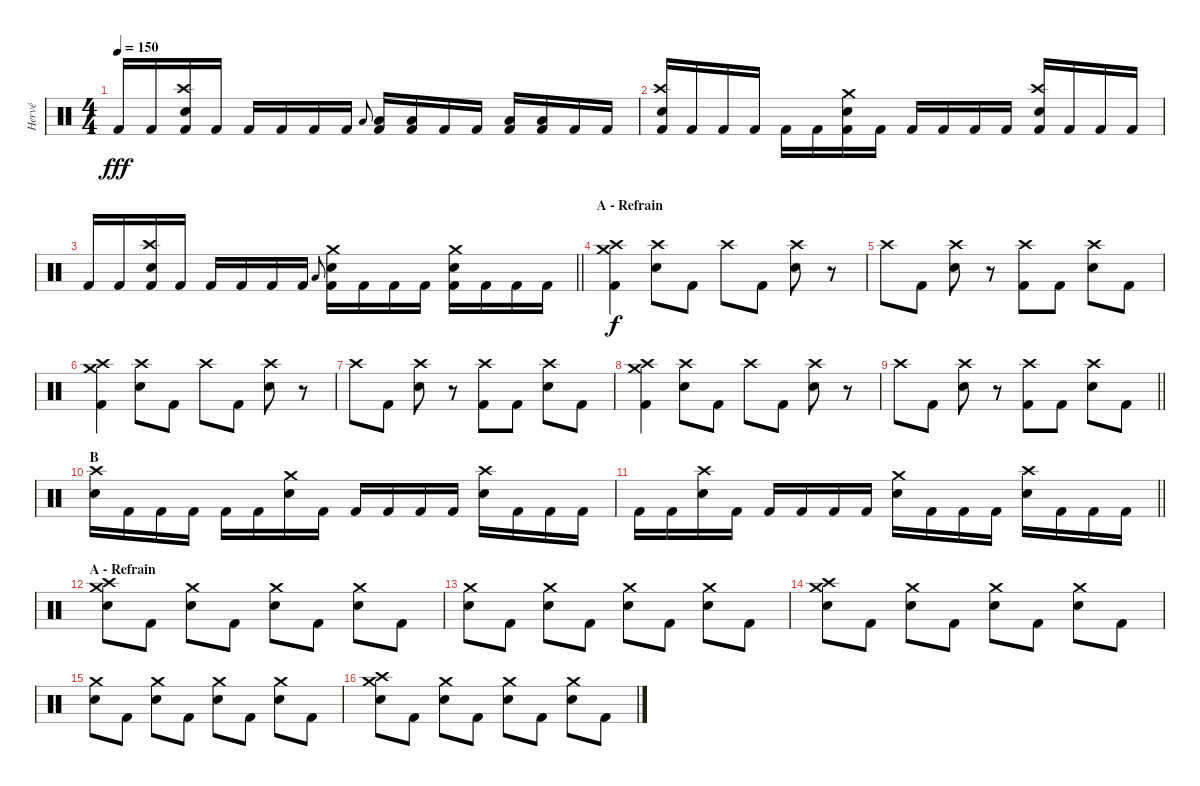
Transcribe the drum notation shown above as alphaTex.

\track ("Hervé" "Hervé") {instrument percussion}
\staff {score}
\articulation defaults
\ts (4 4)
\tempo 150
\clef neutral
\ks c "Kick (hit) 2".16{dy fff} "Kick (hit) 2".16
("Crash high (hit)" "Snare (hit) 2" "Kick (hit) 2").16 "Kick (hit) 2".16 "Kick (hit) 2".16 "Kick (hit) 2".16 "Kick (hit) 2".16 "Kick (hit) 2".16 "Low Tom (hit)".8{gr onbeat} ("Low Tom (hit)" "Kick (hit) 2").16 ("Low Tom (hit)" "Kick (hit) 2").16 "Kick (hit) 2".16 "Kick (hit) 2".16 ("Low Tom (hit)" "Kick (hit) 2").16 ("Low Tom (hit)" "Kick (hit) 2").16 "Kick (hit) 2".16 "Kick (hit) 2".16 |
("Crash high (hit)" "Snare (hit) 2" "Kick (hit) 2").16 "Kick (hit) 2".16 "Kick (hit) 2".16 "Kick (hit) 2".16 "Kick (hit) 2".16 "Kick (hit) 2".16 ("Crash medium (hit)" "Snare (hit) 2" "Kick (hit) 2").16 "Kick (hit) 2".16 "Kick (hit) 2".16 "Kick (hit) 2".16 "Kick (hit) 2".16 "Kick (hit) 2".16 ("Crash high (hit)" "Snare (hit) 2" "Kick (hit) 2").16 "Kick (hit) 2".16 "Kick (hit) 2".16 "Kick (hit) 2".16 |
\barLineRight lightlight "Kick (hit) 2".16 "Kick (hit) 2".16
("Crash high (hit)" "Snare (hit) 2" "Kick (hit) 2").16 "Kick (hit) 2".16 "Kick (hit) 2".16 "Kick (hit) 2".16 "Kick (hit) 2".16 "Kick (hit) 2".16 "Low Tom (hit)".8{gr onbeat} ("Crash medium (hit)" "Snare (hit) 2" "Kick (hit) 2").16 "Kick (hit) 2".16 "Kick (hit) 2".16 "Kick (hit) 2".16 ("Crash medium (hit)" "Snare (hit) 2" "Kick (hit) 2").16 "Kick (hit) 2".16 "Kick (hit) 2".16 "Kick (hit) 2".16 |
\section ("" "A - Refrain")
("Crash medium (hit)" "Crash high (hit)" "Kick (hit) 2").4{dy f} ("Crash high (hit)" "Snare (hit) 2").8 "Kick (hit) 2".8 "Crash high (hit)".8 "Kick (hit) 2".8 ("Crash high (hit)" "Snare (hit) 2").8 r.8 |
"Crash high (hit)".8 "Kick (hit) 2".8 ("Crash high (hit)" "Snare (hit) 2").8 r.8 ("Crash high (hit)" "Kick (hit) 2").8 "Kick (hit) 2".8 ("Crash high (hit)" "Snare (hit) 2").8 "Kick (hit) 2".8 |
("Crash medium (hit)" "Crash high (hit)" "Kick (hit) 2").4 ("Crash high (hit)" "Snare (hit) 2").8 "Kick (hit) 2".8 "Crash high (hit)".8 "Kick (hit) 2".8 ("Crash high (hit)" "Snare (hit) 2").8 r.8 |
"Crash high (hit)".8 "Kick (hit) 2".8 ("Crash high (hit)" "Snare (hit) 2").8 r.8 ("Crash high (hit)" "Kick (hit) 2").8 "Kick (hit) 2".8 ("Crash high (hit)" "Snare (hit) 2").8 "Kick (hit) 2".8 |
("Crash medium (hit)" "Crash high (hit)" "Kick (hit) 2").4 ("Crash high (hit)" "Snare (hit) 2").8 "Kick (hit) 2".8 "Crash high (hit)".8 "Kick (hit) 2".8 ("Crash high (hit)" "Snare (hit) 2").8 r.8 |
\barLineRight lightlight "Crash high (hit)".8 "Kick (hit) 2".8
("Crash high (hit)" "Snare (hit) 2").8 r.8 ("Crash high (hit)" "Kick (hit) 2").8 "Kick (hit) 2".8 ("Crash high (hit)" "Snare (hit) 2").8 "Kick (hit) 2".8 |
\section ("" "B")
("Crash high (hit)" "Snare (hit) 2").16 "Kick (hit) 2".16 "Kick (hit) 2".16 "Kick (hit) 2".16 "Kick (hit) 2".16 "Kick (hit) 2".16 ("Crash medium (hit)" "Snare (hit) 2").16 "Kick (hit) 2".16 "Kick (hit) 2".16 "Kick (hit) 2".16 "Kick (hit) 2".16 "Kick (hit) 2".16 ("Crash high (hit)" "Snare (hit) 2").16 "Kick (hit) 2".16 "Kick (hit) 2".16 "Kick (hit) 2".16 |
\barLineRight lightlight "Kick (hit) 2".16 "Kick (hit) 2".16
("Crash high (hit)" "Snare (hit) 2").16 "Kick (hit) 2".16 "Kick (hit) 2".16 "Kick (hit) 2".16 "Kick (hit) 2".16 "Kick (hit) 2".16 ("Crash medium (hit)" "Snare (hit) 2").16 "Kick (hit) 2".16 "Kick (hit) 2".16 "Kick (hit) 2".16 ("Crash high (hit)" "Snare (hit) 2").16 "Kick (hit) 2".16 "Kick (hit) 2".16 "Kick (hit) 2".16 |
\section ("" "A - Refrain")
("Crash high (hit)" "Crash medium (hit)" "Snare (hit) 2").8 "Kick (hit) 2".8 ("Crash medium (hit)" "Snare (hit) 2").8 "Kick (hit) 2".8 ("Crash medium (hit)" "Snare (hit) 2").8 "Kick (hit) 2".8 ("Crash medium (hit)" "Snare (hit) 2").8 "Kick (hit) 2".8 |
("Crash medium (hit)" "Snare (hit) 2").8 "Kick (hit) 2".8 ("Crash medium (hit)" "Snare (hit) 2").8 "Kick (hit) 2".8 ("Crash medium (hit)" "Snare (hit) 2").8 "Kick (hit) 2".8 ("Crash medium (hit)" "Snare (hit) 2").8 "Kick (hit) 2".8 |
("Crash high (hit)" "Crash medium (hit)" "Snare (hit) 2").8 "Kick (hit) 2".8 ("Crash medium (hit)" "Snare (hit) 2").8 "Kick (hit) 2".8 ("Crash medium (hit)" "Snare (hit) 2").8 "Kick (hit) 2".8 ("Crash medium (hit)" "Snare (hit) 2").8 "Kick (hit) 2".8 |
("Crash medium (hit)" "Snare (hit) 2").8 "Kick (hit) 2".8 ("Crash medium (hit)" "Snare (hit) 2").8 "Kick (hit) 2".8 ("Crash medium (hit)" "Snare (hit) 2").8 "Kick (hit) 2".8 ("Crash medium (hit)" "Snare (hit) 2").8 "Kick (hit) 2".8 |
("Crash high (hit)" "Crash medium (hit)" "Snare (hit) 2").8 "Kick (hit) 2".8 ("Crash medium (hit)" "Snare (hit) 2").8 "Kick (hit) 2".8 ("Crash medium (hit)" "Snare (hit) 2").8 "Kick (hit) 2".8 ("Crash medium (hit)" "Snare (hit) 2").8 "Kick (hit) 2".8
